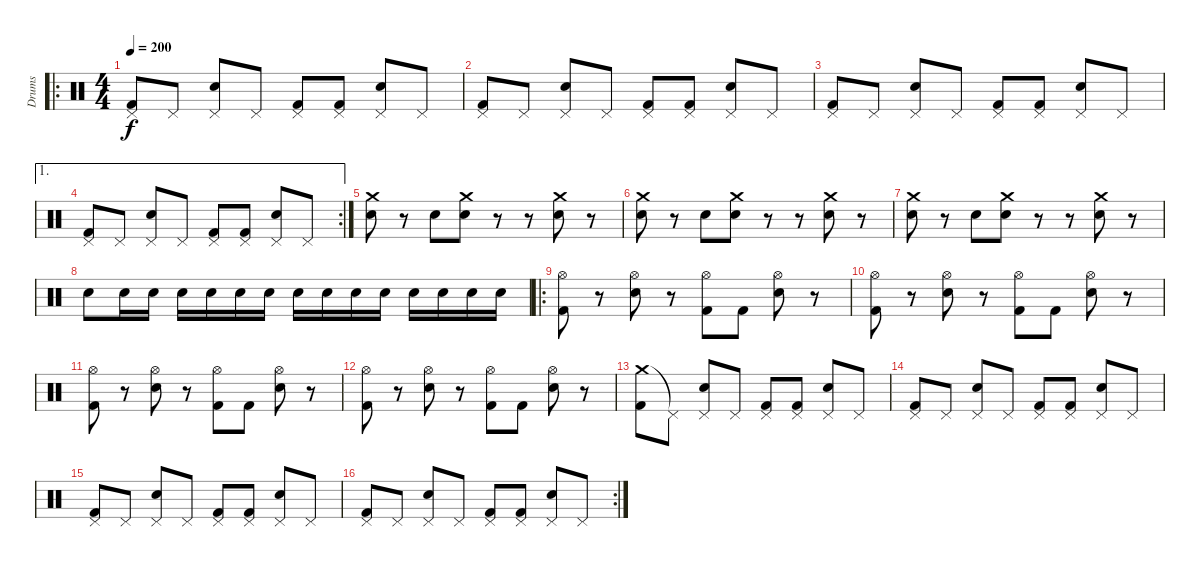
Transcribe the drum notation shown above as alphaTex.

\track ("Drums" "Drums") {instrument percussion}
\staff {score}
\articulation defaults
\ro
\ts (4 4)
\tempo 200
\clef neutral
\ks c
("Pedal Hi-Hat (hit)" "Kick (hit) 2").8{dy f} "Pedal Hi-Hat (hit)".8 ("Pedal Hi-Hat (hit)" "Snare (hit) 2").8 "Pedal Hi-Hat (hit)".8 ("Pedal Hi-Hat (hit)" "Kick (hit) 2").8 ("Pedal Hi-Hat (hit)" "Kick (hit) 2").8 ("Pedal Hi-Hat (hit)" "Snare (hit) 2").8 "Pedal Hi-Hat (hit)".8 |
("Pedal Hi-Hat (hit)" "Kick (hit) 2").8 "Pedal Hi-Hat (hit)".8 ("Pedal Hi-Hat (hit)" "Snare (hit) 2").8 "Pedal Hi-Hat (hit)".8 ("Pedal Hi-Hat (hit)" "Kick (hit) 2").8 ("Pedal Hi-Hat (hit)" "Kick (hit) 2").8 ("Pedal Hi-Hat (hit)" "Snare (hit) 2").8 "Pedal Hi-Hat (hit)".8 |
("Pedal Hi-Hat (hit)" "Kick (hit) 2").8 "Pedal Hi-Hat (hit)".8 ("Pedal Hi-Hat (hit)" "Snare (hit) 2").8 "Pedal Hi-Hat (hit)".8 ("Pedal Hi-Hat (hit)" "Kick (hit) 2").8 ("Pedal Hi-Hat (hit)" "Kick (hit) 2").8 ("Pedal Hi-Hat (hit)" "Snare (hit) 2").8 "Pedal Hi-Hat (hit)".8 |
\ae 1
\rc 2
("Pedal Hi-Hat (hit)" "Kick (hit) 2").8 "Pedal Hi-Hat (hit)".8 ("Pedal Hi-Hat (hit)" "Snare (hit) 2").8 "Pedal Hi-Hat (hit)".8 ("Pedal Hi-Hat (hit)" "Kick (hit) 2").8 ("Pedal Hi-Hat (hit)" "Kick (hit) 2").8 ("Pedal Hi-Hat (hit)" "Snare (hit) 2").8 "Pedal Hi-Hat (hit)".8 |
("Crash medium (hit)" "Snare (hit) 2").8 r.8 "Snare (hit) 2".8 ("Crash medium (hit)" "Snare (hit) 2").8 r.8 r.8 ("Crash medium (hit)" "Snare (hit) 2").8 r.8 |
("Crash medium (hit)" "Snare (hit) 2").8 r.8 "Snare (hit) 2".8 ("Crash medium (hit)" "Snare (hit) 2").8 r.8 r.8 ("Crash medium (hit)" "Snare (hit) 2").8 r.8 |
("Crash medium (hit)" "Snare (hit) 2").8 r.8 "Snare (hit) 2".8 ("Crash medium (hit)" "Snare (hit) 2").8 r.8 r.8 ("Crash medium (hit)" "Snare (hit) 2").8 r.8 |
"Snare (hit) 2".8 "Snare (hit) 2".16 "Snare (hit) 2".16 "Snare (hit) 2".16 "Snare (hit) 2".16 "Snare (hit) 2".16 "Snare (hit) 2".16 "Snare (hit) 2".16 "Snare (hit) 2".16 "Snare (hit) 2".16 "Snare (hit) 2".16 "Snare (hit) 2".16 "Snare (hit) 2".16 "Snare (hit) 2".16 "Snare (hit) 2".16 |
\ro
("Hi-Hat (open)" "Kick (hit) 2").8 r.8 ("Hi-Hat (open)" "Snare (hit) 2").8 r.8 ("Hi-Hat (open)" "Kick (hit) 2").8 "Kick (hit) 2".8 ("Hi-Hat (open)" "Snare (hit) 2").8 r.8 |
("Hi-Hat (open)" "Kick (hit) 2").8 r.8 ("Hi-Hat (open)" "Snare (hit) 2").8 r.8 ("Hi-Hat (open)" "Kick (hit) 2").8 "Kick (hit) 2".8 ("Hi-Hat (open)" "Snare (hit) 2").8 r.8 |
("Hi-Hat (open)" "Kick (hit) 2").8 r.8 ("Hi-Hat (open)" "Snare (hit) 2").8 r.8 ("Hi-Hat (open)" "Kick (hit) 2").8 "Kick (hit) 2".8 ("Hi-Hat (open)" "Snare (hit) 2").8 r.8 |
("Hi-Hat (open)" "Kick (hit) 2").8 r.8 ("Hi-Hat (open)" "Snare (hit) 2").8 r.8 ("Hi-Hat (open)" "Kick (hit) 2").8 "Kick (hit) 2".8 ("Hi-Hat (open)" "Snare (hit) 2").8 r.8 |
("Crash medium (hit)" "Kick (hit) 2").8 "Pedal Hi-Hat (hit)"{t}.8 ("Pedal Hi-Hat (hit)" "Snare (hit) 2").8 "Pedal Hi-Hat (hit)".8 ("Pedal Hi-Hat (hit)" "Kick (hit) 2").8 ("Pedal Hi-Hat (hit)" "Kick (hit) 2").8 ("Pedal Hi-Hat (hit)" "Snare (hit) 2").8 "Pedal Hi-Hat (hit)".8 |
("Pedal Hi-Hat (hit)" "Kick (hit) 2").8 "Pedal Hi-Hat (hit)".8 ("Pedal Hi-Hat (hit)" "Snare (hit) 2").8 "Pedal Hi-Hat (hit)".8 ("Pedal Hi-Hat (hit)" "Kick (hit) 2").8 ("Pedal Hi-Hat (hit)" "Kick (hit) 2").8 ("Pedal Hi-Hat (hit)" "Snare (hit) 2").8 "Pedal Hi-Hat (hit)".8 |
("Pedal Hi-Hat (hit)" "Kick (hit) 2").8 "Pedal Hi-Hat (hit)".8 ("Pedal Hi-Hat (hit)" "Snare (hit) 2").8 "Pedal Hi-Hat (hit)".8 ("Pedal Hi-Hat (hit)" "Kick (hit) 2").8 ("Pedal Hi-Hat (hit)" "Kick (hit) 2").8 ("Pedal Hi-Hat (hit)" "Snare (hit) 2").8 "Pedal Hi-Hat (hit)".8 |
\rc 2
("Pedal Hi-Hat (hit)" "Kick (hit) 2").8 "Pedal Hi-Hat (hit)".8 ("Pedal Hi-Hat (hit)" "Snare (hit) 2").8 "Pedal Hi-Hat (hit)".8 ("Pedal Hi-Hat (hit)" "Kick (hit) 2").8 ("Pedal Hi-Hat (hit)" "Kick (hit) 2").8 ("Pedal Hi-Hat (hit)" "Snare (hit) 2").8 "Pedal Hi-Hat (hit)".8
